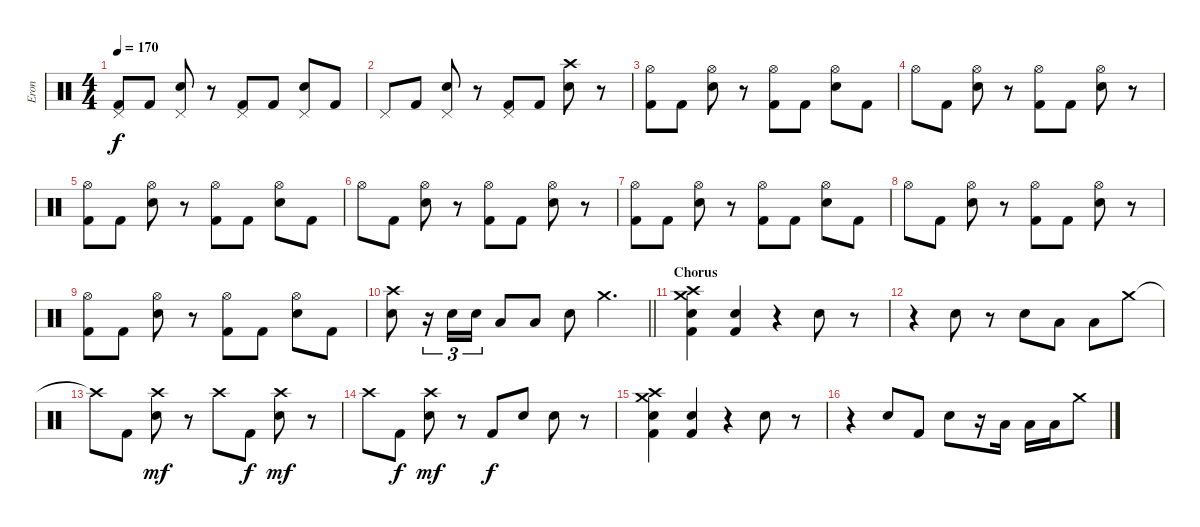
\track ("Eron" "Eron") {instrument percussion}
\staff {score}
\articulation defaults
\ts (4 4)
\tempo 170
\clef neutral
\ks c
("Pedal Hi-Hat (hit)" "Kick (hit) 2").8{dy f} "Kick (hit) 2".8 ("Pedal Hi-Hat (hit)" "Snare (hit) 2").8 r.8 ("Pedal Hi-Hat (hit)" "Kick (hit) 2").8 "Kick (hit) 2".8 ("Pedal Hi-Hat (hit)" "Snare (hit) 2").8 "Kick (hit) 2".8 |
"Pedal Hi-Hat (hit)".8 "Kick (hit) 2".8 ("Pedal Hi-Hat (hit)" "Snare (hit) 2").8 r.8 ("Pedal Hi-Hat (hit)" "Kick (hit) 2").8 "Kick (hit) 2".8 ("Crash high (hit)" "Snare (hit) 2").8 r.8 |
("Hi-Hat (open)" "Kick (hit) 2").8 "Kick (hit) 2".8 ("Hi-Hat (open)" "Snare (hit) 2").8 r.8 ("Hi-Hat (open)" "Kick (hit) 2").8 "Kick (hit) 2".8 ("Hi-Hat (open)" "Snare (hit) 2").8 "Kick (hit) 2".8 |
"Hi-Hat (open)".8 "Kick (hit) 2".8 ("Hi-Hat (open)" "Snare (hit) 2").8 r.8 ("Hi-Hat (open)" "Kick (hit) 2").8 "Kick (hit) 2".8 ("Hi-Hat (open)" "Snare (hit) 2").8 r.8 |
("Hi-Hat (open)" "Kick (hit) 2").8 "Kick (hit) 2".8 ("Hi-Hat (open)" "Snare (hit) 2").8 r.8 ("Hi-Hat (open)" "Kick (hit) 2").8 "Kick (hit) 2".8 ("Hi-Hat (open)" "Snare (hit) 2").8 "Kick (hit) 2".8 |
"Hi-Hat (open)".8 "Kick (hit) 2".8 ("Hi-Hat (open)" "Snare (hit) 2").8 r.8 ("Hi-Hat (open)" "Kick (hit) 2").8 "Kick (hit) 2".8 ("Hi-Hat (open)" "Snare (hit) 2").8 r.8 |
("Hi-Hat (open)" "Kick (hit) 2").8 "Kick (hit) 2".8 ("Hi-Hat (open)" "Snare (hit) 2").8 r.8 ("Hi-Hat (open)" "Kick (hit) 2").8 "Kick (hit) 2".8 ("Hi-Hat (open)" "Snare (hit) 2").8 "Kick (hit) 2".8 |
"Hi-Hat (open)".8 "Kick (hit) 2".8 ("Hi-Hat (open)" "Snare (hit) 2").8 r.8 ("Hi-Hat (open)" "Kick (hit) 2").8 "Kick (hit) 2".8 ("Hi-Hat (open)" "Snare (hit) 2").8 r.8 |
("Hi-Hat (open)" "Kick (hit) 2").8 "Kick (hit) 2".8 ("Hi-Hat (open)" "Snare (hit) 2").8 r.8 ("Hi-Hat (open)" "Kick (hit) 2").8 "Kick (hit) 2".8 ("Hi-Hat (open)" "Snare (hit) 2").8 "Kick (hit) 2".8 |
\barLineRight lightlight
("Crash high (hit)" "Snare (hit) 2").8 r.16{tu (3 2)} "Snare (hit) 2".16{tu (3 2)} "Snare (hit) 2".16{tu (3 2)} "Low Tom (hit)".8 "Low Floor Tom (hit)".8 "Snare (hit) 2".8 "Crash medium (hit)".4{d} |
\section ("" "Chorus")
("Crash high (hit)" "Crash medium (hit)" "Snare (hit) 2" "Kick (hit) 2").4 ("Snare (hit) 2" "Kick (hit) 2").4 r.4 "Snare (hit) 2".8 r.8 |
r.4 "Snare (hit) 2".8 r.8 "Snare (hit) 2".8 "Low Tom (hit)".8 "Low Floor Tom (hit)".8 "Crash medium (hit)".8 |
"Crash high (hit)"{t}.8 "Kick (hit) 2".8 ("Crash high (hit)" "Snare (hit) 2").8{dy mf} r.8 "Crash high (hit)".8 "Kick (hit) 2".8{dy f} ("Crash high (hit)" "Snare (hit) 2").8{dy mf} r.8 |
"Crash high (hit)".8 "Kick (hit) 2".8{dy f} ("Crash high (hit)" "Snare (hit) 2").8{dy mf} r.8 "Kick (hit) 2".8{dy f} "Snare (hit) 2".8 "Snare (hit) 2".8 r.8 |
("Crash medium (hit)" "Crash high (hit)" "Snare (hit) 2" "Kick (hit) 2").4 ("Snare (hit) 2" "Kick (hit) 2").4 r.4 "Snare (hit) 2".8 r.8 |
r.4 "Snare (hit) 2".8 "Kick (hit) 2".8 "Snare (hit) 2".8 r.16 "Low Tom (hit)".16 "Low Tom (hit)".16 "Low Floor Tom (hit)".16 "Crash medium (hit)".8
